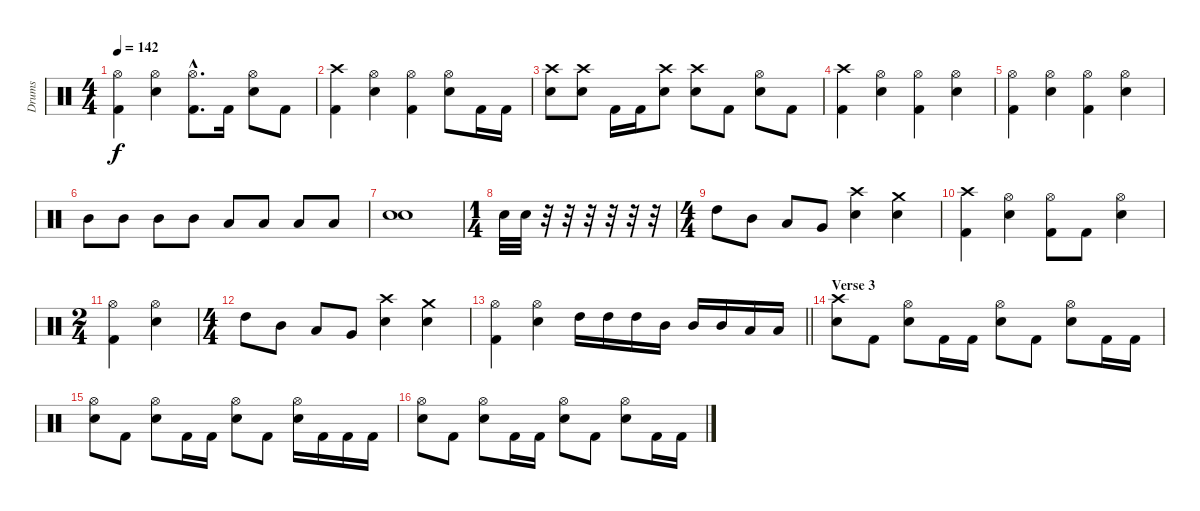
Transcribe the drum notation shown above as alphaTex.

\track ("Drums" "Drums") {instrument percussion}
\staff {score}
\articulation defaults
\ts (4 4)
\tempo 142
\clef neutral
\ks c
("Kick (hit) 2" "Hi-Hat (open)").4{dy f} ("Snare (hit) 2" "Hi-Hat (open)").4 ("Kick (hit) 2"{hac} "Hi-Hat (open)"{hac}).8{d} "Kick (hit) 2".16 ("Snare (hit) 2" "Hi-Hat (open)").8 "Kick (hit) 2".8 |
("Kick (hit) 2" "Crash high (hit)").4 ("Snare (hit) 2" "Hi-Hat (open)").4 ("Kick (hit) 2" "Hi-Hat (open)").4 ("Snare (hit) 2" "Hi-Hat (open)").8 "Kick (hit) 2".16 "Kick (hit) 2".16 |
("Snare (hit) 2" "Crash high (hit)").8 ("Snare (hit) 2" "Crash high (hit)").8 "Kick (hit) 2".16 "Kick (hit) 2".16 ("Snare (hit) 2" "Crash high (hit)").8 ("Snare (hit) 2" "Crash high (hit)").8 "Kick (hit) 2".8 ("Snare (hit) 2" "Hi-Hat (open)").8 "Kick (hit) 2".8 |
("Kick (hit) 2" "Crash high (hit)").4 ("Snare (hit) 2" "Hi-Hat (open)").4 ("Kick (hit) 2" "Hi-Hat (open)").4 ("Snare (hit) 2" "Hi-Hat (open)").4 |
("Kick (hit) 2" "Hi-Hat (open)").4 ("Snare (hit) 2" "Hi-Hat (open)").4 ("Kick (hit) 2" "Hi-Hat (open)").4 ("Snare (hit) 2" "Hi-Hat (open)").4 |
"Mid Tom (hit)".8 "Mid Tom (hit)".8 "Mid Tom (hit)".8 "Mid Tom (hit)".8 "Low Tom (hit)".8 "Low Tom (hit)".8 "Low Tom (hit)".8 "Low Tom (hit)".8 |
("Electric Snare (hit)" "Snare (hit) 2").1 |
\ts (1 4)
"Snare (hit) 2".32 "Snare (hit) 2".32 r.32 r.32 r.32 r.32 r.32 r.32 |
\ts (4 4)
"High Tom (hit)".8 "Mid Tom (hit)".8 "Low Tom (hit)".8 "Very Low Tom (hit)".8 ("Snare (hit) 2" "Crash high (hit)").4 ("Snare (hit) 2" "Crash medium (hit)").4 |
("Kick (hit) 2" "Crash high (hit)").4 ("Snare (hit) 2" "Hi-Hat (open)").4 ("Kick (hit) 2" "Hi-Hat (open)").8 "Kick (hit) 2".8 ("Snare (hit) 2" "Hi-Hat (open)").4 |
\ts (2 4)
("Kick (hit) 2" "Hi-Hat (open)").4 ("Snare (hit) 2" "Hi-Hat (open)").4 |
\ts (4 4)
"High Tom (hit)".8 "Mid Tom (hit)".8 "Low Tom (hit)".8 "Very Low Tom (hit)".8 ("Snare (hit) 2" "Crash high (hit)").4 ("Snare (hit) 2" "Crash medium (hit)").4 |
\barLineRight lightlight
("Kick (hit) 2" "Hi-Hat (open)").4 ("Snare (hit) 2" "Hi-Hat (open)").4 "High Tom (hit)".16 "High Tom (hit)".16 "High Tom (hit)".16 "Mid Tom (hit)".16 "Mid Tom (hit)".16 "Mid Tom (hit)".16 "Low Tom (hit)".16 "Low Tom (hit)".16 |
\section ("" "Verse 3")
("Snare (hit) 2" "Crash high (hit)").8 "Kick (hit) 2".8 ("Snare (hit) 2" "Hi-Hat (open)").8 "Kick (hit) 2".16 "Kick (hit) 2".16 ("Snare (hit) 2" "Hi-Hat (open)").8 "Kick (hit) 2".8 ("Snare (hit) 2" "Hi-Hat (open)").8 "Kick (hit) 2".16 "Kick (hit) 2".16 |
("Snare (hit) 2" "Hi-Hat (open)").8 "Kick (hit) 2".8 ("Snare (hit) 2" "Hi-Hat (open)").8 "Kick (hit) 2".16 "Kick (hit) 2".16 ("Snare (hit) 2" "Hi-Hat (open)").8 "Kick (hit) 2".8 ("Snare (hit) 2" "Hi-Hat (open)").16 "Kick (hit) 2".16 "Kick (hit) 2".16 "Kick (hit) 2".16 |
("Snare (hit) 2" "Hi-Hat (open)").8 "Kick (hit) 2".8 ("Snare (hit) 2" "Hi-Hat (open)").8 "Kick (hit) 2".16 "Kick (hit) 2".16 ("Snare (hit) 2" "Hi-Hat (open)").8 "Kick (hit) 2".8 ("Snare (hit) 2" "Hi-Hat (open)").8 "Kick (hit) 2".16 "Kick (hit) 2".16
